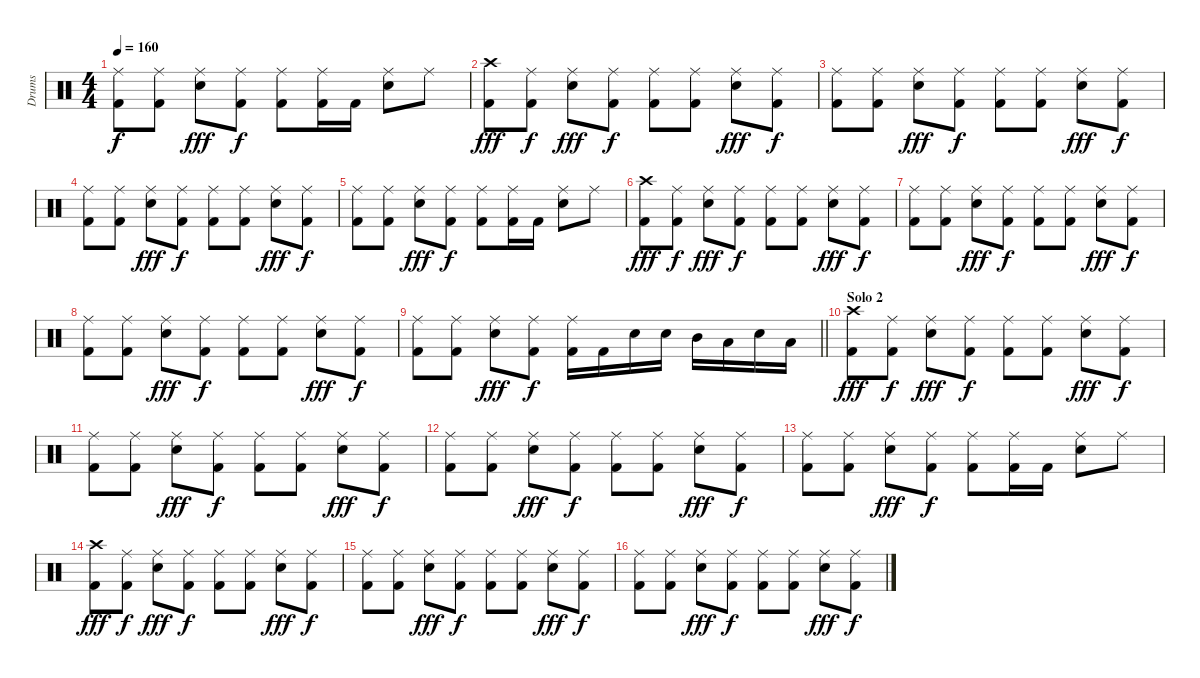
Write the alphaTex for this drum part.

\track ("Drums" "Drums") {instrument percussion}
\staff {score}
\articulation defaults
\ts (4 4)
\tempo 160
\clef neutral
\ks c
("Kick (hit) 2" "Ride (middle)").8{dy f} ("Kick (hit) 2" "Ride (middle)").8 ("Snare (hit) 2" "Ride (middle)").8{dy fff} ("Kick (hit) 2" "Ride (middle)").8{dy f} ("Kick (hit) 2" "Ride (middle)").8 ("Kick (hit) 2" "Ride (middle)").16 "Kick (hit) 2".16 ("Snare (hit) 2" "Ride (middle)").8 "Ride (middle)".8 |
("Kick (hit) 2" "Crash high (hit)").8{dy fff} ("Kick (hit) 2" "Ride (middle)").8{dy f} ("Snare (hit) 2" "Ride (middle)").8{dy fff} ("Kick (hit) 2" "Ride (middle)").8{dy f} ("Kick (hit) 2" "Ride (middle)").8 ("Kick (hit) 2" "Ride (middle)").8 ("Snare (hit) 2" "Ride (middle)").8{dy fff} ("Kick (hit) 2" "Ride (middle)").8{dy f} |
("Kick (hit) 2" "Ride (middle)").8 ("Kick (hit) 2" "Ride (middle)").8 ("Snare (hit) 2" "Ride (middle)").8{dy fff} ("Kick (hit) 2" "Ride (middle)").8{dy f} ("Kick (hit) 2" "Ride (middle)").8 ("Kick (hit) 2" "Ride (middle)").8 ("Snare (hit) 2" "Ride (middle)").8{dy fff} ("Kick (hit) 2" "Ride (middle)").8{dy f} |
("Kick (hit) 2" "Ride (middle)").8 ("Kick (hit) 2" "Ride (middle)").8 ("Snare (hit) 2" "Ride (middle)").8{dy fff} ("Kick (hit) 2" "Ride (middle)").8{dy f} ("Kick (hit) 2" "Ride (middle)").8 ("Kick (hit) 2" "Ride (middle)").8 ("Snare (hit) 2" "Ride (middle)").8{dy fff} ("Kick (hit) 2" "Ride (middle)").8{dy f} |
("Kick (hit) 2" "Ride (middle)").8 ("Kick (hit) 2" "Ride (middle)").8 ("Snare (hit) 2" "Ride (middle)").8{dy fff} ("Kick (hit) 2" "Ride (middle)").8{dy f} ("Kick (hit) 2" "Ride (middle)").8 ("Kick (hit) 2" "Ride (middle)").16 "Kick (hit) 2".16 ("Snare (hit) 2" "Ride (middle)").8 "Ride (middle)".8 |
("Kick (hit) 2" "Crash high (hit)").8{dy fff} ("Kick (hit) 2" "Ride (middle)").8{dy f} ("Snare (hit) 2" "Ride (middle)").8{dy fff} ("Kick (hit) 2" "Ride (middle)").8{dy f} ("Kick (hit) 2" "Ride (middle)").8 ("Kick (hit) 2" "Ride (middle)").8 ("Snare (hit) 2" "Ride (middle)").8{dy fff} ("Kick (hit) 2" "Ride (middle)").8{dy f} |
("Kick (hit) 2" "Ride (middle)").8 ("Kick (hit) 2" "Ride (middle)").8 ("Snare (hit) 2" "Ride (middle)").8{dy fff} ("Kick (hit) 2" "Ride (middle)").8{dy f} ("Kick (hit) 2" "Ride (middle)").8 ("Kick (hit) 2" "Ride (middle)").8 ("Snare (hit) 2" "Ride (middle)").8{dy fff} ("Kick (hit) 2" "Ride (middle)").8{dy f} |
("Kick (hit) 2" "Ride (middle)").8 ("Kick (hit) 2" "Ride (middle)").8 ("Snare (hit) 2" "Ride (middle)").8{dy fff} ("Kick (hit) 2" "Ride (middle)").8{dy f} ("Kick (hit) 2" "Ride (middle)").8 ("Kick (hit) 2" "Ride (middle)").8 ("Snare (hit) 2" "Ride (middle)").8{dy fff} ("Kick (hit) 2" "Ride (middle)").8{dy f} |
\barLineRight lightlight
("Kick (hit) 2" "Ride (middle)").8 ("Kick (hit) 2" "Ride (middle)").8 ("Snare (hit) 2" "Ride (middle)").8{dy fff} ("Kick (hit) 2" "Ride (middle)").8{dy f} ("Kick (hit) 2" "Ride (middle)").16 "Kick (hit) 2".16 "Snare (hit) 2".16 "Snare (hit) 2".16 "Mid Tom (hit)".16 "Low Tom (hit)".16 "Snare (hit) 2".16 "Low Tom (hit)".16 |
\section ("" "Solo 2")
("Kick (hit) 2" "Crash high (hit)").8{dy fff} ("Kick (hit) 2" "Ride (middle)").8{dy f} ("Snare (hit) 2" "Ride (middle)").8{dy fff} ("Kick (hit) 2" "Ride (middle)").8{dy f} ("Kick (hit) 2" "Ride (middle)").8 ("Kick (hit) 2" "Ride (middle)").8 ("Snare (hit) 2" "Ride (middle)").8{dy fff} ("Kick (hit) 2" "Ride (middle)").8{dy f} |
("Kick (hit) 2" "Ride (middle)").8 ("Kick (hit) 2" "Ride (middle)").8 ("Snare (hit) 2" "Ride (middle)").8{dy fff} ("Kick (hit) 2" "Ride (middle)").8{dy f} ("Kick (hit) 2" "Ride (middle)").8 ("Kick (hit) 2" "Ride (middle)").8 ("Snare (hit) 2" "Ride (middle)").8{dy fff} ("Kick (hit) 2" "Ride (middle)").8{dy f} |
("Kick (hit) 2" "Ride (middle)").8 ("Kick (hit) 2" "Ride (middle)").8 ("Snare (hit) 2" "Ride (middle)").8{dy fff} ("Kick (hit) 2" "Ride (middle)").8{dy f} ("Kick (hit) 2" "Ride (middle)").8 ("Kick (hit) 2" "Ride (middle)").8 ("Snare (hit) 2" "Ride (middle)").8{dy fff} ("Kick (hit) 2" "Ride (middle)").8{dy f} |
("Kick (hit) 2" "Ride (middle)").8 ("Kick (hit) 2" "Ride (middle)").8 ("Snare (hit) 2" "Ride (middle)").8{dy fff} ("Kick (hit) 2" "Ride (middle)").8{dy f} ("Kick (hit) 2" "Ride (middle)").8 ("Kick (hit) 2" "Ride (middle)").16 "Kick (hit) 2".16 ("Snare (hit) 2" "Ride (middle)").8 "Ride (middle)".8 |
("Kick (hit) 2" "Crash high (hit)").8{dy fff} ("Kick (hit) 2" "Ride (middle)").8{dy f} ("Snare (hit) 2" "Ride (middle)").8{dy fff} ("Kick (hit) 2" "Ride (middle)").8{dy f} ("Kick (hit) 2" "Ride (middle)").8 ("Kick (hit) 2" "Ride (middle)").8 ("Snare (hit) 2" "Ride (middle)").8{dy fff} ("Kick (hit) 2" "Ride (middle)").8{dy f} |
("Kick (hit) 2" "Ride (middle)").8 ("Kick (hit) 2" "Ride (middle)").8 ("Snare (hit) 2" "Ride (middle)").8{dy fff} ("Kick (hit) 2" "Ride (middle)").8{dy f} ("Kick (hit) 2" "Ride (middle)").8 ("Kick (hit) 2" "Ride (middle)").8 ("Snare (hit) 2" "Ride (middle)").8{dy fff} ("Kick (hit) 2" "Ride (middle)").8{dy f} |
("Kick (hit) 2" "Ride (middle)").8 ("Kick (hit) 2" "Ride (middle)").8 ("Snare (hit) 2" "Ride (middle)").8{dy fff} ("Kick (hit) 2" "Ride (middle)").8{dy f} ("Kick (hit) 2" "Ride (middle)").8 ("Kick (hit) 2" "Ride (middle)").8 ("Snare (hit) 2" "Ride (middle)").8{dy fff} ("Kick (hit) 2" "Ride (middle)").8{dy f}
